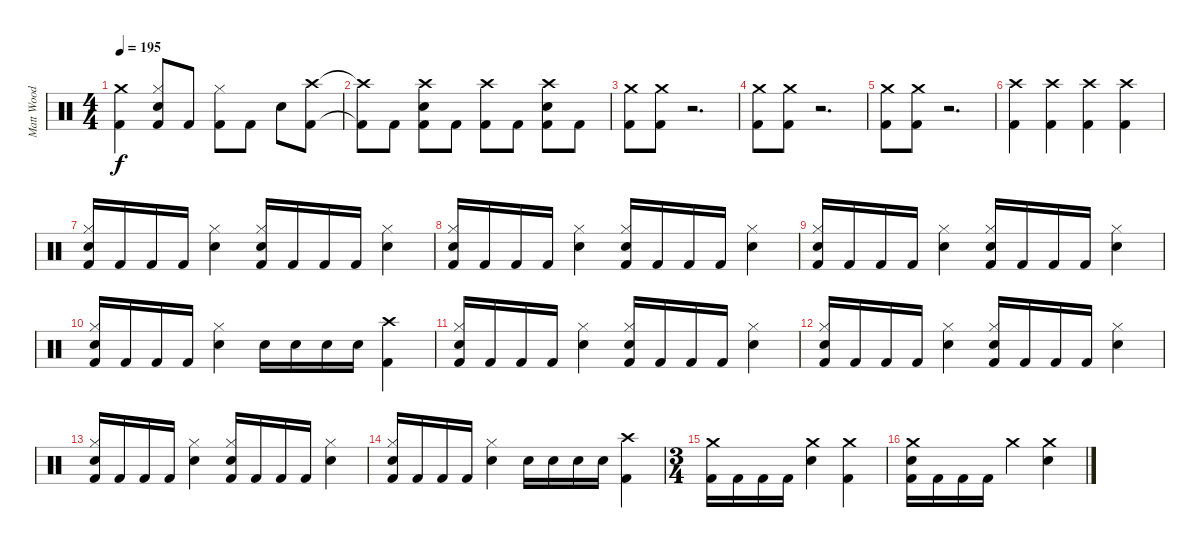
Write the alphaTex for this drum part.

\track ("Matt Wood" "Matt Wood") {instrument percussion}
\staff {score}
\articulation defaults
\ts (4 4)
\tempo 195
\clef neutral
\ks c
("Crash medium (hit)" "Kick (hit) 2").4{dy f} ("Hi-Hat (closed)" "Snare (hit) 2" "Kick (hit) 2").8 "Kick (hit) 2".8 ("Hi-Hat (closed)" "Kick (hit) 2").8 "Kick (hit) 2".8 "Snare (hit) 2".8 ("Crash high (hit)" "Kick (hit) 2").8 |
("Crash high (hit)"{t} "Kick (hit) 2"{t}).8 "Kick (hit) 2".8 ("Crash high (hit)" "Snare (hit) 2" "Kick (hit) 2").8 "Kick (hit) 2".8 ("Crash high (hit)" "Kick (hit) 2").8 "Kick (hit) 2".8 ("Crash high (hit)" "Snare (hit) 2" "Kick (hit) 2").8 "Kick (hit) 2".8 |
("Crash medium (hit)" "Kick (hit) 2").8 ("Crash medium (hit)" "Kick (hit) 2").8 r.2{d} |
("Crash medium (hit)" "Kick (hit) 2").8 ("Crash medium (hit)" "Kick (hit) 2").8 r.2{d} |
("Crash medium (hit)" "Kick (hit) 2").8 ("Crash medium (hit)" "Kick (hit) 2").8 r.2{d} |
("Crash high (hit)" "Kick (hit) 2").4 ("Crash high (hit)" "Kick (hit) 2").4 ("Crash high (hit)" "Kick (hit) 2").4 ("Crash high (hit)" "Kick (hit) 2").4 |
("Hi-Hat (closed)" "Snare (hit) 2" "Kick (hit) 2").16 "Kick (hit) 2".16 "Kick (hit) 2".16 "Kick (hit) 2".16 ("Hi-Hat (closed)" "Snare (hit) 2").4 ("Hi-Hat (closed)" "Snare (hit) 2" "Kick (hit) 2").16 "Kick (hit) 2".16 "Kick (hit) 2".16 "Kick (hit) 2".16 ("Hi-Hat (closed)" "Snare (hit) 2").4 |
("Hi-Hat (closed)" "Snare (hit) 2" "Kick (hit) 2").16 "Kick (hit) 2".16 "Kick (hit) 2".16 "Kick (hit) 2".16 ("Hi-Hat (closed)" "Snare (hit) 2").4 ("Hi-Hat (closed)" "Snare (hit) 2" "Kick (hit) 2").16 "Kick (hit) 2".16 "Kick (hit) 2".16 "Kick (hit) 2".16 ("Hi-Hat (closed)" "Snare (hit) 2").4 |
("Hi-Hat (closed)" "Snare (hit) 2" "Kick (hit) 2").16 "Kick (hit) 2".16 "Kick (hit) 2".16 "Kick (hit) 2".16 ("Hi-Hat (closed)" "Snare (hit) 2").4 ("Hi-Hat (closed)" "Snare (hit) 2" "Kick (hit) 2").16 "Kick (hit) 2".16 "Kick (hit) 2".16 "Kick (hit) 2".16 ("Hi-Hat (closed)" "Snare (hit) 2").4 |
("Hi-Hat (closed)" "Snare (hit) 2" "Kick (hit) 2").16 "Kick (hit) 2".16 "Kick (hit) 2".16 "Kick (hit) 2".16 ("Hi-Hat (closed)" "Snare (hit) 2").4 "Snare (hit) 2".16 "Snare (hit) 2".16 "Snare (hit) 2".16 "Snare (hit) 2".16 ("Crash high (hit)" "Kick (hit) 2").4 |
("Hi-Hat (closed)" "Snare (hit) 2" "Kick (hit) 2").16 "Kick (hit) 2".16 "Kick (hit) 2".16 "Kick (hit) 2".16 ("Hi-Hat (closed)" "Snare (hit) 2").4 ("Hi-Hat (closed)" "Snare (hit) 2" "Kick (hit) 2").16 "Kick (hit) 2".16 "Kick (hit) 2".16 "Kick (hit) 2".16 ("Hi-Hat (closed)" "Snare (hit) 2").4 |
("Hi-Hat (closed)" "Snare (hit) 2" "Kick (hit) 2").16 "Kick (hit) 2".16 "Kick (hit) 2".16 "Kick (hit) 2".16 ("Hi-Hat (closed)" "Snare (hit) 2").4 ("Hi-Hat (closed)" "Snare (hit) 2" "Kick (hit) 2").16 "Kick (hit) 2".16 "Kick (hit) 2".16 "Kick (hit) 2".16 ("Hi-Hat (closed)" "Snare (hit) 2").4 |
("Hi-Hat (closed)" "Snare (hit) 2" "Kick (hit) 2").16 "Kick (hit) 2".16 "Kick (hit) 2".16 "Kick (hit) 2".16 ("Hi-Hat (closed)" "Snare (hit) 2").4 ("Hi-Hat (closed)" "Snare (hit) 2" "Kick (hit) 2").16 "Kick (hit) 2".16 "Kick (hit) 2".16 "Kick (hit) 2".16 ("Hi-Hat (closed)" "Snare (hit) 2").4 |
("Hi-Hat (closed)" "Snare (hit) 2" "Kick (hit) 2").16 "Kick (hit) 2".16 "Kick (hit) 2".16 "Kick (hit) 2".16 ("Hi-Hat (closed)" "Snare (hit) 2").4 "Snare (hit) 2".16 "Snare (hit) 2".16 "Snare (hit) 2".16 "Snare (hit) 2".16 ("Crash high (hit)" "Kick (hit) 2").4 |
\ts (3 4)
("Crash medium (hit)" "Kick (hit) 2").16 "Kick (hit) 2".16 "Kick (hit) 2".16 "Kick (hit) 2".16 ("Crash medium (hit)" "Snare (hit) 2").4 ("Crash medium (hit)" "Kick (hit) 2").4 |
("Crash medium (hit)" "Snare (hit) 2" "Kick (hit) 2").16 "Kick (hit) 2".16 "Kick (hit) 2".16 "Kick (hit) 2".16 "Crash medium (hit)".4 ("Crash medium (hit)" "Snare (hit) 2").4
